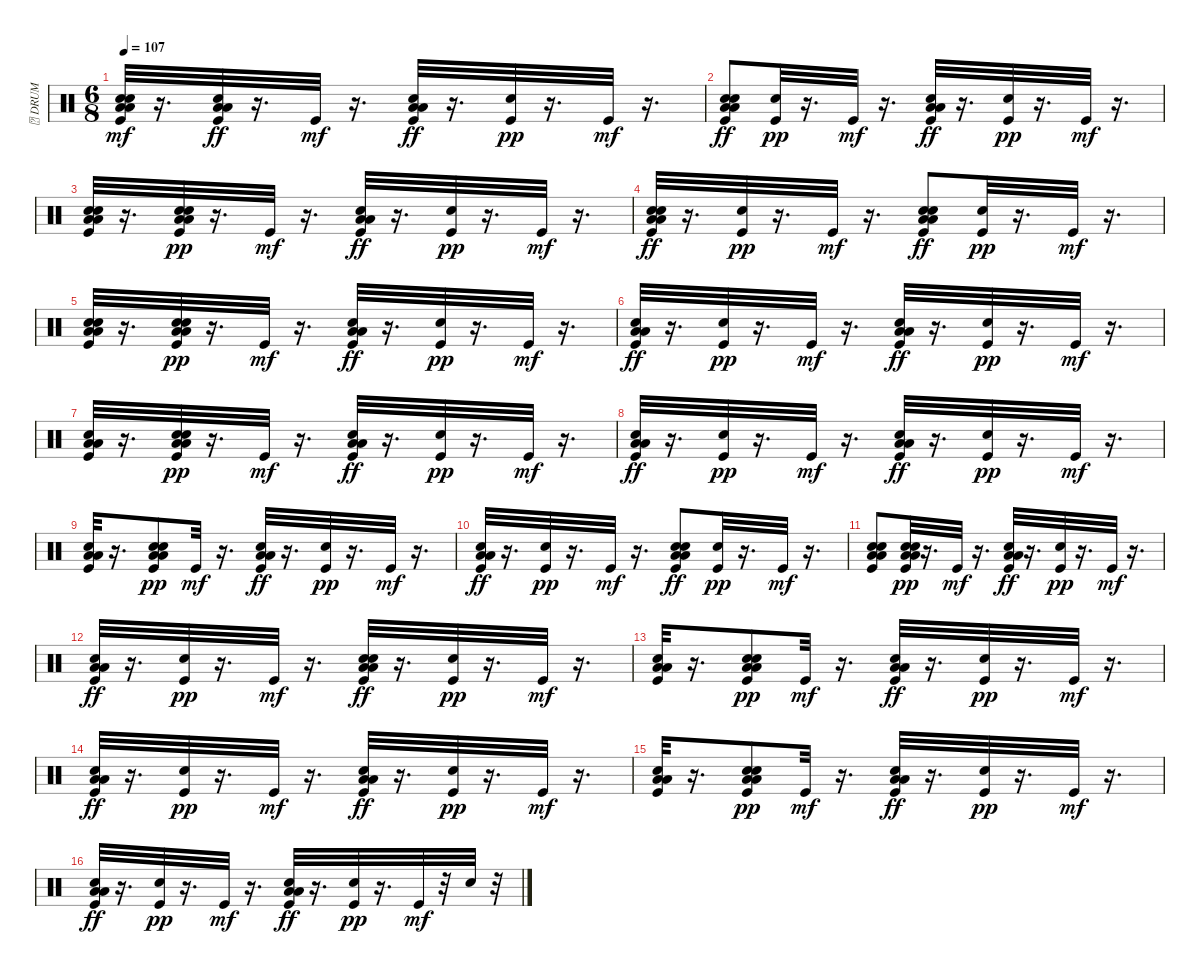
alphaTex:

\track ("\t DRUM" "\t DRUM") {instrument percussion}
\staff {score}
\articulation defaults
\ts (6 8)
\tempo 107
\clef neutral
\ks c
("Kick (hit)" "Hand Clap (hit)" "Low Floor Tom (hit)" "Low Tom (hit)" "Hand Clap (hit)").32{dy mf} r.16{d} ("Kick (hit)" "Hand Clap (hit)" "Low Floor Tom (hit)" "Low Tom (hit)").32{dy ff} r.16{d} "Kick (hit)".32{dy mf} r.16{d} ("Kick (hit)" "Hand Clap (hit)" "Low Floor Tom (hit)" "Low Tom (hit)").32{dy ff} r.16{d} ("Kick (hit)" "Hand Clap (hit)").32{dy pp} r.16{d} "Kick (hit)".32{dy mf} r.16{d} |
("Kick (hit)" "Hand Clap (hit)" "Low Floor Tom (hit)" "Low Tom (hit)" "Hand Clap (hit)").8{dy ff} ("Kick (hit)" "Hand Clap (hit)").32{dy pp} r.16{d} "Kick (hit)".32{dy mf} r.16{d} ("Kick (hit)" "Hand Clap (hit)" "Low Floor Tom (hit)" "Low Tom (hit)").32{dy ff} r.16{d} ("Kick (hit)" "Hand Clap (hit)").32{dy pp} r.16{d} "Kick (hit)".32{dy mf} r.16{d} |
("Kick (hit)" "Hand Clap (hit)" "Low Floor Tom (hit)" "Low Tom (hit)" "Hand Clap (hit)").32 r.16{d} ("Kick (hit)" "Hand Clap (hit)" "Low Floor Tom (hit)" "Low Tom (hit)" "Hand Clap (hit)").32{dy pp} r.16{d} "Kick (hit)".32{dy mf} r.16{d} ("Kick (hit)" "Hand Clap (hit)" "Low Floor Tom (hit)" "Low Tom (hit)").32{dy ff} r.16{d} ("Kick (hit)" "Hand Clap (hit)").32{dy pp} r.16{d} "Kick (hit)".32{dy mf} r.16{d} |
("Kick (hit)" "Hand Clap (hit)" "Low Floor Tom (hit)" "Low Tom (hit)" "Hand Clap (hit)").32{dy ff} r.16{d} ("Kick (hit)" "Hand Clap (hit)").32{dy pp} r.16{d} "Kick (hit)".32{dy mf} r.16{d} ("Kick (hit)" "Hand Clap (hit)" "Low Floor Tom (hit)" "Low Tom (hit)" "Hand Clap (hit)").8{dy ff} ("Kick (hit)" "Hand Clap (hit)").32{dy pp} r.16{d} "Kick (hit)".32{dy mf} r.16{d} |
("Kick (hit)" "Hand Clap (hit)" "Low Floor Tom (hit)" "Low Tom (hit)" "Hand Clap (hit)").32 r.16{d} ("Kick (hit)" "Hand Clap (hit)" "Low Floor Tom (hit)" "Low Tom (hit)" "Hand Clap (hit)").32{dy pp} r.16{d} "Kick (hit)".32{dy mf} r.16{d} ("Kick (hit)" "Hand Clap (hit)" "Low Floor Tom (hit)" "Low Tom (hit)").32{dy ff} r.16{d} ("Kick (hit)" "Hand Clap (hit)").32{dy pp} r.16{d} "Kick (hit)".32{dy mf} r.16{d} |
("Kick (hit)" "Hand Clap (hit)" "Low Floor Tom (hit)" "Low Tom (hit)").32{dy ff} r.16{d} ("Kick (hit)" "Hand Clap (hit)").32{dy pp} r.16{d} "Kick (hit)".32{dy mf} r.16{d} ("Kick (hit)" "Hand Clap (hit)" "Low Floor Tom (hit)" "Low Tom (hit)").32{dy ff} r.16{d} ("Kick (hit)" "Hand Clap (hit)").32{dy pp} r.16{d} "Kick (hit)".32{dy mf} r.16{d} |
("Kick (hit)" "Hand Clap (hit)" "Low Floor Tom (hit)" "Low Tom (hit)").32 r.16{d} ("Kick (hit)" "Hand Clap (hit)" "Low Floor Tom (hit)" "Low Tom (hit)" "Hand Clap (hit)").32{dy pp} r.16{d} "Kick (hit)".32{dy mf} r.16{d} ("Kick (hit)" "Hand Clap (hit)" "Low Floor Tom (hit)" "Low Tom (hit)").32{dy ff} r.16{d} ("Kick (hit)" "Hand Clap (hit)").32{dy pp} r.16{d} "Kick (hit)".32{dy mf} r.16{d} |
("Kick (hit)" "Hand Clap (hit)" "Low Floor Tom (hit)" "Low Tom (hit)").32{dy ff} r.16{d} ("Kick (hit)" "Hand Clap (hit)").32{dy pp} r.16{d} "Kick (hit)".32{dy mf} r.16{d} ("Kick (hit)" "Hand Clap (hit)" "Low Floor Tom (hit)" "Low Tom (hit)").32{dy ff} r.16{d} ("Kick (hit)" "Hand Clap (hit)").32{dy pp} r.16{d} "Kick (hit)".32{dy mf} r.16{d} |
("Kick (hit)" "Hand Clap (hit)" "Low Floor Tom (hit)" "Low Tom (hit)").32 r.16{d} ("Kick (hit)" "Hand Clap (hit)" "Low Floor Tom (hit)" "Low Tom (hit)" "Hand Clap (hit)").8{dy pp} "Kick (hit)".32{dy mf} r.16{d} ("Kick (hit)" "Hand Clap (hit)" "Low Floor Tom (hit)" "Low Tom (hit)").32{dy ff} r.16{d} ("Kick (hit)" "Hand Clap (hit)").32{dy pp} r.16{d} "Kick (hit)".32{dy mf} r.16{d} |
("Kick (hit)" "Hand Clap (hit)" "Low Floor Tom (hit)" "Low Tom (hit)").32{dy ff} r.16{d} ("Kick (hit)" "Hand Clap (hit)").32{dy pp} r.16{d} "Kick (hit)".32{dy mf} r.16{d} ("Kick (hit)" "Hand Clap (hit)" "Low Floor Tom (hit)" "Low Tom (hit)" "Hand Clap (hit)").8{dy ff} ("Kick (hit)" "Hand Clap (hit)").32{dy pp} r.16{d} "Kick (hit)".32{dy mf} r.16{d} |
("Kick (hit)" "Hand Clap (hit)" "Low Floor Tom (hit)" "Low Tom (hit)" "Hand Clap (hit)").8 ("Kick (hit)" "Hand Clap (hit)" "Low Floor Tom (hit)" "Low Tom (hit)" "Hand Clap (hit)").32{dy pp} r.16{d} "Kick (hit)".32{dy mf} r.16{d} ("Kick (hit)" "Hand Clap (hit)" "Low Floor Tom (hit)" "Low Tom (hit)").32{dy ff} r.16{d} ("Kick (hit)" "Hand Clap (hit)").32{dy pp} r.16{d} "Kick (hit)".32{dy mf} r.16{d} |
("Kick (hit)" "Hand Clap (hit)" "Low Floor Tom (hit)" "Low Tom (hit)").32{dy ff} r.16{d} ("Kick (hit)" "Hand Clap (hit)").32{dy pp} r.16{d} "Kick (hit)".32{dy mf} r.16{d} ("Kick (hit)" "Hand Clap (hit)" "Low Floor Tom (hit)" "Low Tom (hit)" "Hand Clap (hit)").32{dy ff} r.16{d} ("Kick (hit)" "Hand Clap (hit)").32{dy pp} r.16{d} "Kick (hit)".32{dy mf} r.16{d} |
("Kick (hit)" "Hand Clap (hit)" "Low Floor Tom (hit)" "Low Tom (hit)").32 r.16{d} ("Kick (hit)" "Hand Clap (hit)" "Low Floor Tom (hit)" "Low Tom (hit)" "Hand Clap (hit)").8{dy pp} "Kick (hit)".32{dy mf} r.16{d} ("Kick (hit)" "Hand Clap (hit)" "Low Floor Tom (hit)" "Low Tom (hit)").32{dy ff} r.16{d} ("Kick (hit)" "Hand Clap (hit)").32{dy pp} r.16{d} "Kick (hit)".32{dy mf} r.16{d} |
("Kick (hit)" "Hand Clap (hit)" "Low Floor Tom (hit)" "Low Tom (hit)").32{dy ff} r.16{d} ("Kick (hit)" "Hand Clap (hit)").32{dy pp} r.16{d} "Kick (hit)".32{dy mf} r.16{d} ("Kick (hit)" "Hand Clap (hit)" "Low Floor Tom (hit)" "Low Tom (hit)").32{dy ff} r.16{d} ("Kick (hit)" "Hand Clap (hit)").32{dy pp} r.16{d} "Kick (hit)".32{dy mf} r.16{d} |
("Kick (hit)" "Hand Clap (hit)" "Low Floor Tom (hit)" "Low Tom (hit)").32 r.16{d} ("Kick (hit)" "Hand Clap (hit)" "Low Floor Tom (hit)" "Low Tom (hit)" "Hand Clap (hit)").8{dy pp} "Kick (hit)".32{dy mf} r.16{d} ("Kick (hit)" "Hand Clap (hit)" "Low Floor Tom (hit)" "Low Tom (hit)").32{dy ff} r.16{d} ("Kick (hit)" "Hand Clap (hit)").32{dy pp} r.16{d} "Kick (hit)".32{dy mf} r.16{d} |
("Kick (hit)" "Hand Clap (hit)" "Low Floor Tom (hit)" "Low Tom (hit)").32{dy ff} r.16{d} ("Kick (hit)" "Hand Clap (hit)").32{dy pp} r.16{d} "Kick (hit)".32{dy mf} r.16{d} ("Kick (hit)" "Hand Clap (hit)" "Low Floor Tom (hit)" "Low Tom (hit)").32{dy ff} r.16{d} ("Kick (hit)" "Hand Clap (hit)").32{dy pp} r.16{d} "Kick (hit)".32{dy mf} r.32 "Electric Snare (hit)".32 r.32
